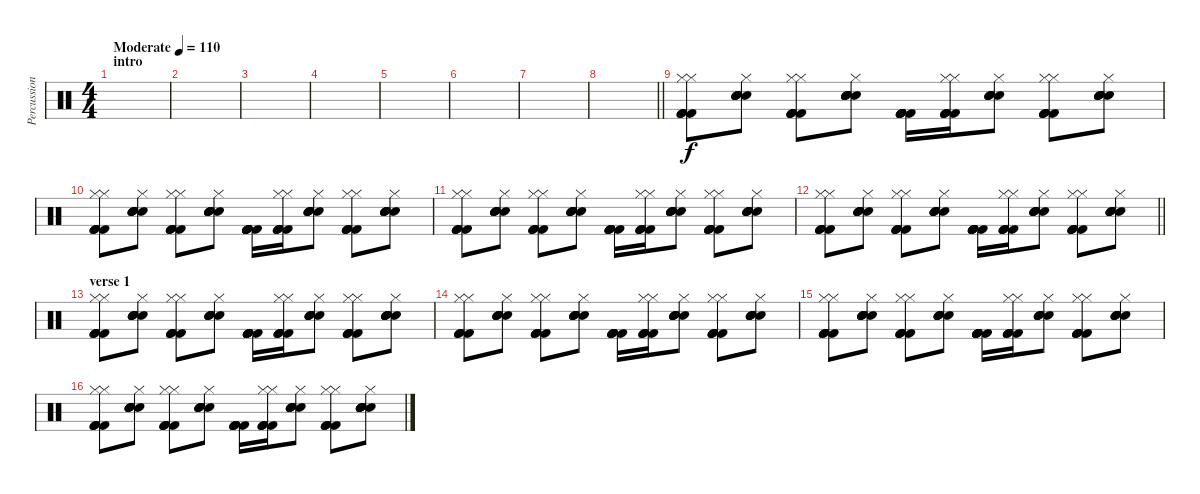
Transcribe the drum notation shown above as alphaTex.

\track ("Percussion" "Percussion") {instrument percussion}
\staff {score}
\articulation defaults
\ts (4 4)
\section ("" "intro")
\tempo (110 "Moderate")
\clef neutral
\ks c
|
|
|
|
|
|
|
\barLineRight lightlight
|
("Kick (hit) 2" "Kick (hit) 2" "Kick (hit) 2" "Kick (hit) 2" "Hi-Hat (closed)" "Hi-Hat (closed)").8 ("Snare (hit) 2" "Snare (hit) 2" "Snare (hit) 2" "Snare (hit) 2" "Snare (hit) 2" "Hi-Hat (closed)").8 ("Kick (hit) 2" "Kick (hit) 2" "Kick (hit) 2" "Kick (hit) 2" "Hi-Hat (closed)" "Hi-Hat (closed)").8 ("Snare (hit) 2" "Snare (hit) 2" "Snare (hit) 2" "Snare (hit) 2" "Snare (hit) 2" "Hi-Hat (closed)").8 ("Kick (hit) 2" "Kick (hit) 2" "Kick (hit) 2" "Kick (hit) 2" "Kick (hit) 2" "Kick (hit) 2").16 ("Kick (hit) 2" "Kick (hit) 2" "Kick (hit) 2" "Kick (hit) 2" "Hi-Hat (closed)" "Hi-Hat (closed)").16 ("Snare (hit) 2" "Snare (hit) 2" "Snare (hit) 2" "Snare (hit) 2" "Snare (hit) 2" "Hi-Hat (closed)").8 ("Kick (hit) 2" "Kick (hit) 2" "Kick (hit) 2" "Kick (hit) 2" "Hi-Hat (closed)" "Hi-Hat (closed)").8 ("Snare (hit) 2" "Snare (hit) 2" "Snare (hit) 2" "Snare (hit) 2" "Snare (hit) 2" "Hi-Hat (closed)").8 |
("Kick (hit) 2" "Kick (hit) 2" "Kick (hit) 2" "Kick (hit) 2" "Hi-Hat (closed)" "Hi-Hat (closed)").8 ("Snare (hit) 2" "Snare (hit) 2" "Snare (hit) 2" "Snare (hit) 2" "Snare (hit) 2" "Hi-Hat (closed)").8 ("Kick (hit) 2" "Kick (hit) 2" "Kick (hit) 2" "Kick (hit) 2" "Hi-Hat (closed)" "Hi-Hat (closed)").8 ("Snare (hit) 2" "Snare (hit) 2" "Snare (hit) 2" "Snare (hit) 2" "Snare (hit) 2" "Hi-Hat (closed)").8 ("Kick (hit) 2" "Kick (hit) 2" "Kick (hit) 2" "Kick (hit) 2" "Kick (hit) 2" "Kick (hit) 2").16 ("Kick (hit) 2" "Kick (hit) 2" "Kick (hit) 2" "Kick (hit) 2" "Hi-Hat (closed)" "Hi-Hat (closed)").16 ("Snare (hit) 2" "Snare (hit) 2" "Snare (hit) 2" "Snare (hit) 2" "Snare (hit) 2" "Hi-Hat (closed)").8 ("Kick (hit) 2" "Kick (hit) 2" "Kick (hit) 2" "Kick (hit) 2" "Hi-Hat (closed)" "Hi-Hat (closed)").8 ("Snare (hit) 2" "Snare (hit) 2" "Snare (hit) 2" "Snare (hit) 2" "Snare (hit) 2" "Hi-Hat (closed)").8 |
("Kick (hit) 2" "Kick (hit) 2" "Kick (hit) 2" "Kick (hit) 2" "Hi-Hat (closed)" "Hi-Hat (closed)").8 ("Snare (hit) 2" "Snare (hit) 2" "Snare (hit) 2" "Snare (hit) 2" "Snare (hit) 2" "Hi-Hat (closed)").8 ("Kick (hit) 2" "Kick (hit) 2" "Kick (hit) 2" "Kick (hit) 2" "Hi-Hat (closed)" "Hi-Hat (closed)").8 ("Snare (hit) 2" "Snare (hit) 2" "Snare (hit) 2" "Snare (hit) 2" "Snare (hit) 2" "Hi-Hat (closed)").8 ("Kick (hit) 2" "Kick (hit) 2" "Kick (hit) 2" "Kick (hit) 2" "Kick (hit) 2" "Kick (hit) 2").16 ("Kick (hit) 2" "Kick (hit) 2" "Kick (hit) 2" "Kick (hit) 2" "Hi-Hat (closed)" "Hi-Hat (closed)").16 ("Snare (hit) 2" "Snare (hit) 2" "Snare (hit) 2" "Snare (hit) 2" "Snare (hit) 2" "Hi-Hat (closed)").8 ("Kick (hit) 2" "Kick (hit) 2" "Kick (hit) 2" "Kick (hit) 2" "Hi-Hat (closed)" "Hi-Hat (closed)").8 ("Snare (hit) 2" "Snare (hit) 2" "Snare (hit) 2" "Snare (hit) 2" "Snare (hit) 2" "Hi-Hat (closed)").8 |
\barLineRight lightlight
("Kick (hit) 2" "Kick (hit) 2" "Kick (hit) 2" "Kick (hit) 2" "Hi-Hat (closed)" "Hi-Hat (closed)").8 ("Snare (hit) 2" "Snare (hit) 2" "Snare (hit) 2" "Snare (hit) 2" "Snare (hit) 2" "Hi-Hat (closed)").8 ("Kick (hit) 2" "Kick (hit) 2" "Kick (hit) 2" "Kick (hit) 2" "Hi-Hat (closed)" "Hi-Hat (closed)").8 ("Snare (hit) 2" "Snare (hit) 2" "Snare (hit) 2" "Snare (hit) 2" "Snare (hit) 2" "Hi-Hat (closed)").8 ("Kick (hit) 2" "Kick (hit) 2" "Kick (hit) 2" "Kick (hit) 2" "Kick (hit) 2" "Kick (hit) 2").16 ("Kick (hit) 2" "Kick (hit) 2" "Kick (hit) 2" "Kick (hit) 2" "Hi-Hat (closed)" "Hi-Hat (closed)").16 ("Snare (hit) 2" "Snare (hit) 2" "Snare (hit) 2" "Snare (hit) 2" "Snare (hit) 2" "Hi-Hat (closed)").8 ("Kick (hit) 2" "Kick (hit) 2" "Kick (hit) 2" "Kick (hit) 2" "Hi-Hat (closed)" "Hi-Hat (closed)").8 ("Snare (hit) 2" "Snare (hit) 2" "Snare (hit) 2" "Snare (hit) 2" "Snare (hit) 2" "Hi-Hat (closed)").8 |
\section ("" "verse 1")
("Kick (hit) 2" "Kick (hit) 2" "Kick (hit) 2" "Kick (hit) 2" "Hi-Hat (closed)" "Hi-Hat (closed)").8 ("Snare (hit) 2" "Snare (hit) 2" "Snare (hit) 2" "Snare (hit) 2" "Snare (hit) 2" "Hi-Hat (closed)").8 ("Kick (hit) 2" "Kick (hit) 2" "Kick (hit) 2" "Kick (hit) 2" "Hi-Hat (closed)" "Hi-Hat (closed)").8 ("Snare (hit) 2" "Snare (hit) 2" "Snare (hit) 2" "Snare (hit) 2" "Snare (hit) 2" "Hi-Hat (closed)").8 ("Kick (hit) 2" "Kick (hit) 2" "Kick (hit) 2" "Kick (hit) 2" "Kick (hit) 2" "Kick (hit) 2").16 ("Kick (hit) 2" "Kick (hit) 2" "Kick (hit) 2" "Kick (hit) 2" "Hi-Hat (closed)" "Hi-Hat (closed)").16 ("Snare (hit) 2" "Snare (hit) 2" "Snare (hit) 2" "Snare (hit) 2" "Snare (hit) 2" "Hi-Hat (closed)").8 ("Kick (hit) 2" "Kick (hit) 2" "Kick (hit) 2" "Kick (hit) 2" "Hi-Hat (closed)" "Hi-Hat (closed)").8 ("Snare (hit) 2" "Snare (hit) 2" "Snare (hit) 2" "Snare (hit) 2" "Snare (hit) 2" "Hi-Hat (closed)").8 |
("Kick (hit) 2" "Kick (hit) 2" "Kick (hit) 2" "Kick (hit) 2" "Hi-Hat (closed)" "Hi-Hat (closed)").8 ("Snare (hit) 2" "Snare (hit) 2" "Snare (hit) 2" "Snare (hit) 2" "Snare (hit) 2" "Hi-Hat (closed)").8 ("Kick (hit) 2" "Kick (hit) 2" "Kick (hit) 2" "Kick (hit) 2" "Hi-Hat (closed)" "Hi-Hat (closed)").8 ("Snare (hit) 2" "Snare (hit) 2" "Snare (hit) 2" "Snare (hit) 2" "Snare (hit) 2" "Hi-Hat (closed)").8 ("Kick (hit) 2" "Kick (hit) 2" "Kick (hit) 2" "Kick (hit) 2" "Kick (hit) 2" "Kick (hit) 2").16 ("Kick (hit) 2" "Kick (hit) 2" "Kick (hit) 2" "Kick (hit) 2" "Hi-Hat (closed)" "Hi-Hat (closed)").16 ("Snare (hit) 2" "Snare (hit) 2" "Snare (hit) 2" "Snare (hit) 2" "Snare (hit) 2" "Hi-Hat (closed)").8 ("Kick (hit) 2" "Kick (hit) 2" "Kick (hit) 2" "Kick (hit) 2" "Hi-Hat (closed)" "Hi-Hat (closed)").8 ("Snare (hit) 2" "Snare (hit) 2" "Snare (hit) 2" "Snare (hit) 2" "Snare (hit) 2" "Hi-Hat (closed)").8 |
("Kick (hit) 2" "Kick (hit) 2" "Kick (hit) 2" "Kick (hit) 2" "Hi-Hat (closed)" "Hi-Hat (closed)").8 ("Snare (hit) 2" "Snare (hit) 2" "Snare (hit) 2" "Snare (hit) 2" "Snare (hit) 2" "Hi-Hat (closed)").8 ("Kick (hit) 2" "Kick (hit) 2" "Kick (hit) 2" "Kick (hit) 2" "Hi-Hat (closed)" "Hi-Hat (closed)").8 ("Snare (hit) 2" "Snare (hit) 2" "Snare (hit) 2" "Snare (hit) 2" "Snare (hit) 2" "Hi-Hat (closed)").8 ("Kick (hit) 2" "Kick (hit) 2" "Kick (hit) 2" "Kick (hit) 2" "Kick (hit) 2" "Kick (hit) 2").16 ("Kick (hit) 2" "Kick (hit) 2" "Kick (hit) 2" "Kick (hit) 2" "Hi-Hat (closed)" "Hi-Hat (closed)").16 ("Snare (hit) 2" "Snare (hit) 2" "Snare (hit) 2" "Snare (hit) 2" "Snare (hit) 2" "Hi-Hat (closed)").8 ("Kick (hit) 2" "Kick (hit) 2" "Kick (hit) 2" "Kick (hit) 2" "Hi-Hat (closed)" "Hi-Hat (closed)").8 ("Snare (hit) 2" "Snare (hit) 2" "Snare (hit) 2" "Snare (hit) 2" "Snare (hit) 2" "Hi-Hat (closed)").8 |
("Kick (hit) 2" "Kick (hit) 2" "Kick (hit) 2" "Kick (hit) 2" "Hi-Hat (closed)" "Hi-Hat (closed)").8 ("Snare (hit) 2" "Snare (hit) 2" "Snare (hit) 2" "Snare (hit) 2" "Snare (hit) 2" "Hi-Hat (closed)").8 ("Kick (hit) 2" "Kick (hit) 2" "Kick (hit) 2" "Kick (hit) 2" "Hi-Hat (closed)" "Hi-Hat (closed)").8 ("Snare (hit) 2" "Snare (hit) 2" "Snare (hit) 2" "Snare (hit) 2" "Snare (hit) 2" "Hi-Hat (closed)").8 ("Kick (hit) 2" "Kick (hit) 2" "Kick (hit) 2" "Kick (hit) 2" "Kick (hit) 2" "Kick (hit) 2").16 ("Kick (hit) 2" "Kick (hit) 2" "Kick (hit) 2" "Kick (hit) 2" "Hi-Hat (closed)" "Hi-Hat (closed)").16 ("Snare (hit) 2" "Snare (hit) 2" "Snare (hit) 2" "Snare (hit) 2" "Snare (hit) 2" "Hi-Hat (closed)").8 ("Kick (hit) 2" "Kick (hit) 2" "Kick (hit) 2" "Kick (hit) 2" "Hi-Hat (closed)" "Hi-Hat (closed)").8 ("Snare (hit) 2" "Snare (hit) 2" "Snare (hit) 2" "Snare (hit) 2" "Snare (hit) 2" "Hi-Hat (closed)").8
